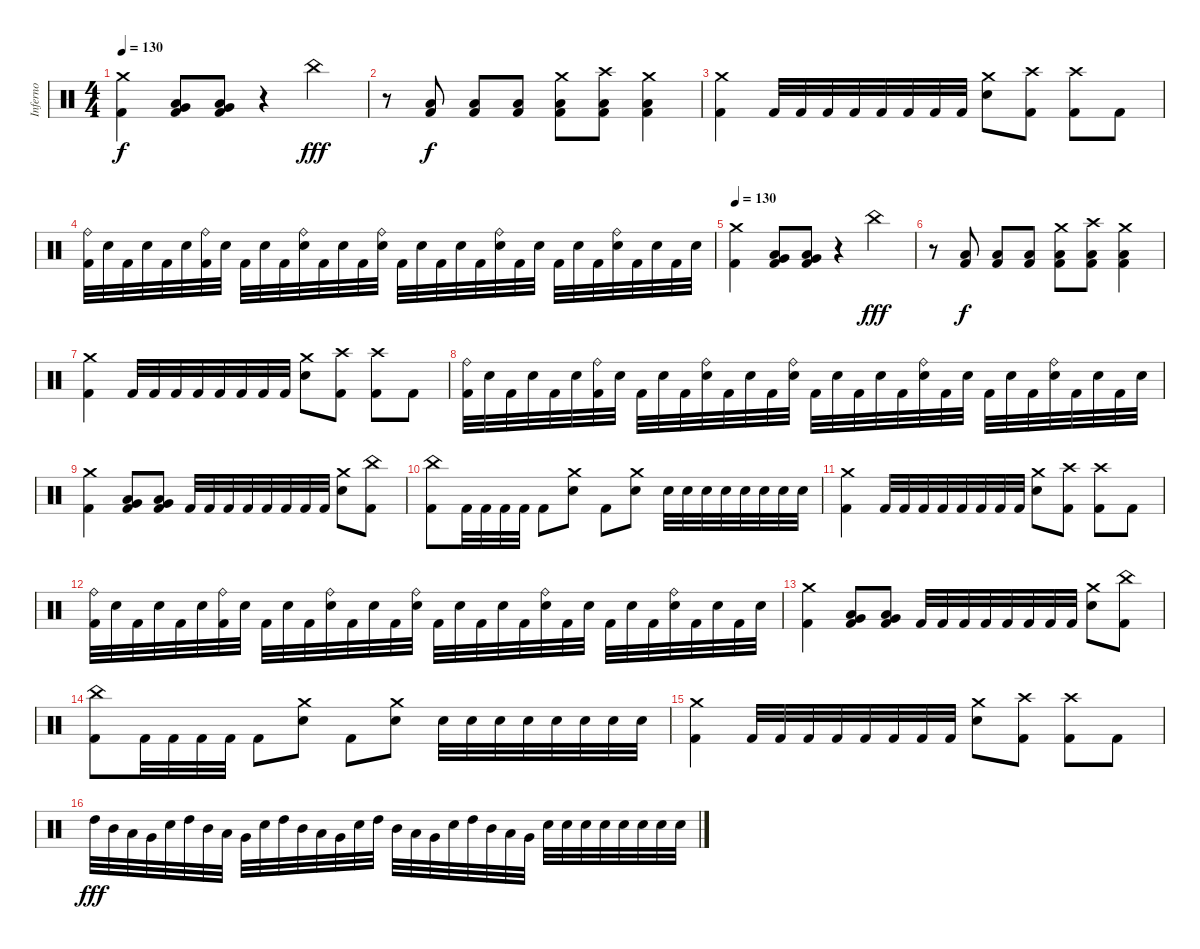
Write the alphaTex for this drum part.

\track ("Inferno" "Inferno") {instrument percussion}
\staff {score}
\articulation defaults
\ts (4 4)
\tempo 130
\clef neutral
\ks c
("Crash medium (hit)" "Kick (hit) 2").4{dy f} ("Very Low Tom (hit)" "Low Floor Tom (hit)" "Kick (hit) 2").8 ("Very Low Tom (hit)" "Low Floor Tom (hit)" "Kick (hit) 2").8 r.4 "China (hit)".4{dy fff} |
r.8 ("Low Floor Tom (hit)" "Kick (hit) 2").8{dy f} ("Low Floor Tom (hit)" "Kick (hit) 2").8 ("Low Floor Tom (hit)" "Kick (hit) 2").8 ("Crash medium (hit)" "Low Floor Tom (hit)" "Kick (hit) 2").8 ("Crash high (hit)" "Low Floor Tom (hit)" "Kick (hit) 2").8 ("Crash medium (hit)" "Low Floor Tom (hit)" "Kick (hit) 2").4 |
("Crash medium (hit)" "Kick (hit) 2").4 "Kick (hit) 2".32 "Kick (hit) 2".32 "Kick (hit) 2".32 "Kick (hit) 2".32 "Kick (hit) 2".32 "Kick (hit) 2".32 "Kick (hit) 2".32 "Kick (hit) 2".32 ("Crash medium (hit)" "Snare (hit) 2").8 ("Crash high (hit)" "Kick (hit) 2").8 ("Crash high (hit)" "Kick (hit) 2").8 "Kick (hit) 2".8 |
("Ride (bell)" "Kick (hit) 2").32 "Snare (hit) 2".32 "Kick (hit) 2".32 "Snare (hit) 2".32 "Kick (hit) 2".32 "Snare (hit) 2".32 ("Ride (bell)" "Kick (hit) 2").32 "Snare (hit) 2".32 "Kick (hit) 2".32 "Snare (hit) 2".32 "Kick (hit) 2".32 ("Ride (bell)" "Snare (hit) 2").32 "Kick (hit) 2".32 "Snare (hit) 2".32 "Kick (hit) 2".32 ("Ride (bell)" "Snare (hit) 2").32 "Kick (hit) 2".32 "Snare (hit) 2".32 "Kick (hit) 2".32 "Snare (hit) 2".32 "Kick (hit) 2".32 ("Ride (bell)" "Snare (hit) 2").32 "Kick (hit) 2".32 "Snare (hit) 2".32 "Kick (hit) 2".32 "Snare (hit) 2".32 "Kick (hit) 2".32 ("Ride (bell)" "Snare (hit) 2").32 "Kick (hit) 2".32 "Snare (hit) 2".32 "Kick (hit) 2".32 "Snare (hit) 2".32 |
\tempo 130
("Crash medium (hit)" "Kick (hit) 2").4 ("Very Low Tom (hit)" "Low Floor Tom (hit)" "Kick (hit) 2").8 ("Very Low Tom (hit)" "Low Floor Tom (hit)" "Kick (hit) 2").8 r.4 "China (hit)".4{dy fff} |
r.8 ("Low Floor Tom (hit)" "Kick (hit) 2").8{dy f} ("Low Floor Tom (hit)" "Kick (hit) 2").8 ("Low Floor Tom (hit)" "Kick (hit) 2").8 ("Crash medium (hit)" "Low Floor Tom (hit)" "Kick (hit) 2").8 ("Crash high (hit)" "Low Floor Tom (hit)" "Kick (hit) 2").8 ("Crash medium (hit)" "Low Floor Tom (hit)" "Kick (hit) 2").4 |
("Crash medium (hit)" "Kick (hit) 2").4 "Kick (hit) 2".32 "Kick (hit) 2".32 "Kick (hit) 2".32 "Kick (hit) 2".32 "Kick (hit) 2".32 "Kick (hit) 2".32 "Kick (hit) 2".32 "Kick (hit) 2".32 ("Crash medium (hit)" "Snare (hit) 2").8 ("Crash high (hit)" "Kick (hit) 2").8 ("Crash high (hit)" "Kick (hit) 2").8 "Kick (hit) 2".8 |
("Ride (bell)" "Kick (hit) 2").32 "Snare (hit) 2".32 "Kick (hit) 2".32 "Snare (hit) 2".32 "Kick (hit) 2".32 "Snare (hit) 2".32 ("Ride (bell)" "Kick (hit) 2").32 "Snare (hit) 2".32 "Kick (hit) 2".32 "Snare (hit) 2".32 "Kick (hit) 2".32 ("Ride (bell)" "Snare (hit) 2").32 "Kick (hit) 2".32 "Snare (hit) 2".32 "Kick (hit) 2".32 ("Ride (bell)" "Snare (hit) 2").32 "Kick (hit) 2".32 "Snare (hit) 2".32 "Kick (hit) 2".32 "Snare (hit) 2".32 "Kick (hit) 2".32 ("Ride (bell)" "Snare (hit) 2").32 "Kick (hit) 2".32 "Snare (hit) 2".32 "Kick (hit) 2".32 "Snare (hit) 2".32 "Kick (hit) 2".32 ("Ride (bell)" "Snare (hit) 2").32 "Kick (hit) 2".32 "Snare (hit) 2".32 "Kick (hit) 2".32 "Snare (hit) 2".32 |
("Crash medium (hit)" "Kick (hit) 2").4 ("Very Low Tom (hit)" "Low Floor Tom (hit)" "Kick (hit) 2").8 ("Very Low Tom (hit)" "Low Floor Tom (hit)" "Kick (hit) 2").8 "Kick (hit) 2".32 "Kick (hit) 2".32 "Kick (hit) 2".32 "Kick (hit) 2".32 "Kick (hit) 2".32 "Kick (hit) 2".32 "Kick (hit) 2".32 "Kick (hit) 2".32 ("Crash medium (hit)" "Snare (hit) 2").8 ("China (hit)" "Kick (hit) 2").8 |
("China (hit)" "Kick (hit) 2").8 "Kick (hit) 2".32 "Kick (hit) 2".32 "Kick (hit) 2".32 "Kick (hit) 2".32 "Kick (hit) 2".8 ("Crash medium (hit)" "Snare (hit) 2").8 "Kick (hit) 2".8 ("Crash medium (hit)" "Snare (hit) 2").8 "Snare (hit) 2".32 "Snare (hit) 2".32 "Snare (hit) 2".32 "Snare (hit) 2".32 "Snare (hit) 2".32 "Snare (hit) 2".32 "Snare (hit) 2".32 "Snare (hit) 2".32 |
("Crash medium (hit)" "Kick (hit) 2").4 "Kick (hit) 2".32 "Kick (hit) 2".32 "Kick (hit) 2".32 "Kick (hit) 2".32 "Kick (hit) 2".32 "Kick (hit) 2".32 "Kick (hit) 2".32 "Kick (hit) 2".32 ("Crash medium (hit)" "Snare (hit) 2").8 ("Crash high (hit)" "Kick (hit) 2").8 ("Crash high (hit)" "Kick (hit) 2").8 "Kick (hit) 2".8 |
("Ride (bell)" "Kick (hit) 2").32 "Snare (hit) 2".32 "Kick (hit) 2".32 "Snare (hit) 2".32 "Kick (hit) 2".32 "Snare (hit) 2".32 ("Ride (bell)" "Kick (hit) 2").32 "Snare (hit) 2".32 "Kick (hit) 2".32 "Snare (hit) 2".32 "Kick (hit) 2".32 ("Ride (bell)" "Snare (hit) 2").32 "Kick (hit) 2".32 "Snare (hit) 2".32 "Kick (hit) 2".32 ("Ride (bell)" "Snare (hit) 2").32 "Kick (hit) 2".32 "Snare (hit) 2".32 "Kick (hit) 2".32 "Snare (hit) 2".32 "Kick (hit) 2".32 ("Ride (bell)" "Snare (hit) 2").32 "Kick (hit) 2".32 "Snare (hit) 2".32 "Kick (hit) 2".32 "Snare (hit) 2".32 "Kick (hit) 2".32 ("Ride (bell)" "Snare (hit) 2").32 "Kick (hit) 2".32 "Snare (hit) 2".32 "Kick (hit) 2".32 "Snare (hit) 2".32 |
("Crash medium (hit)" "Kick (hit) 2").4 ("Very Low Tom (hit)" "Low Floor Tom (hit)" "Kick (hit) 2").8 ("Very Low Tom (hit)" "Low Floor Tom (hit)" "Kick (hit) 2").8 "Kick (hit) 2".32 "Kick (hit) 2".32 "Kick (hit) 2".32 "Kick (hit) 2".32 "Kick (hit) 2".32 "Kick (hit) 2".32 "Kick (hit) 2".32 "Kick (hit) 2".32 ("Crash medium (hit)" "Snare (hit) 2").8 ("China (hit)" "Kick (hit) 2").8 |
("China (hit)" "Kick (hit) 2").8 "Kick (hit) 2".32 "Kick (hit) 2".32 "Kick (hit) 2".32 "Kick (hit) 2".32 "Kick (hit) 2".8 ("Crash medium (hit)" "Snare (hit) 2").8 "Kick (hit) 2".8 ("Crash medium (hit)" "Snare (hit) 2").8 "Snare (hit) 2".32 "Snare (hit) 2".32 "Snare (hit) 2".32 "Snare (hit) 2".32 "Snare (hit) 2".32 "Snare (hit) 2".32 "Snare (hit) 2".32 "Snare (hit) 2".32 |
("Crash medium (hit)" "Kick (hit) 2").4 "Kick (hit) 2".32 "Kick (hit) 2".32 "Kick (hit) 2".32 "Kick (hit) 2".32 "Kick (hit) 2".32 "Kick (hit) 2".32 "Kick (hit) 2".32 "Kick (hit) 2".32 ("Crash medium (hit)" "Snare (hit) 2").8 ("Crash high (hit)" "Kick (hit) 2").8 ("Crash high (hit)" "Kick (hit) 2").8 "Kick (hit) 2".8 |
"High Tom (hit)".32{dy fff} "Mid Tom (hit)".32 "Low Tom (hit)".32 "Very Low Tom (hit)".32 "Snare (hit) 2".32 "High Tom (hit)".32 "Mid Tom (hit)".32 "Low Tom (hit)".32 "Very Low Tom (hit)".32 "Snare (hit) 2".32 "High Tom (hit)".32 "Mid Tom (hit)".32 "Low Tom (hit)".32 "Very Low Tom (hit)".32 "Snare (hit) 2".32 "High Tom (hit)".32 "Mid Tom (hit)".32 "Low Tom (hit)".32 "Very Low Tom (hit)".32 "Snare (hit) 2".32 "High Tom (hit)".32 "Mid Tom (hit)".32 "Low Tom (hit)".32 "Very Low Tom (hit)".32 "Snare (hit) 2".32 "Snare (hit) 2".32 "Snare (hit) 2".32 "Snare (hit) 2".32 "Snare (hit) 2".32 "Snare (hit) 2".32 "Snare (hit) 2".32 "Snare (hit) 2".32
